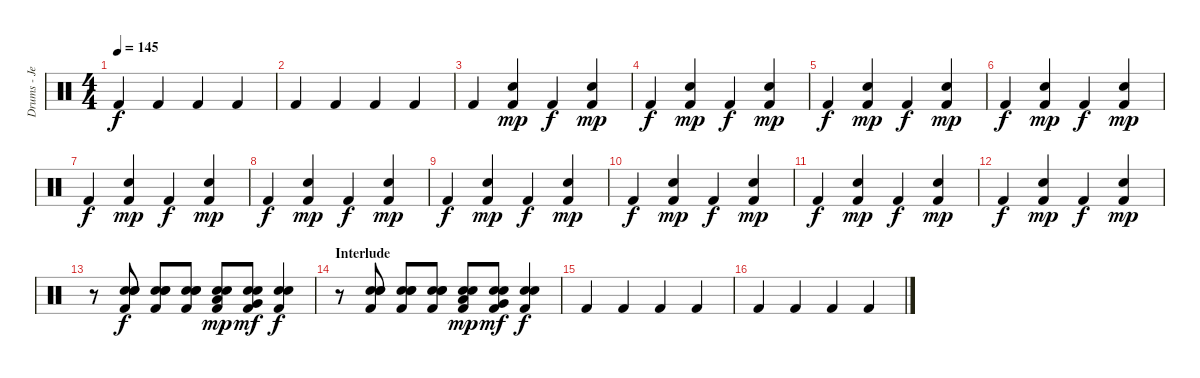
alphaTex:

\track ("Drums - Jeremiah Green" "Drums - Je") {instrument percussion}
\staff {score}
\articulation defaults
\ts (4 4)
\tempo 145
\clef neutral
\ks c "Kick (hit) 2".4{dy f} "Kick (hit) 2".4 "Kick (hit) 2".4 "Kick (hit) 2".4
|
"Kick (hit) 2".4 "Kick (hit) 2".4 "Kick (hit) 2".4 "Kick (hit) 2".4 |
"Kick (hit) 2".4 ("Snare (hit) 2" "Kick (hit) 2").4{dy mp} "Kick (hit) 2".4{dy f} ("Snare (hit) 2" "Kick (hit) 2").4{dy mp} |
"Kick (hit) 2".4{dy f} ("Snare (hit) 2" "Kick (hit) 2").4{dy mp} "Kick (hit) 2".4{dy f} ("Snare (hit) 2" "Kick (hit) 2").4{dy mp} |
"Kick (hit) 2".4{dy f} ("Snare (hit) 2" "Kick (hit) 2").4{dy mp} "Kick (hit) 2".4{dy f} ("Snare (hit) 2" "Kick (hit) 2").4{dy mp} |
"Kick (hit) 2".4{dy f} ("Snare (hit) 2" "Kick (hit) 2").4{dy mp} "Kick (hit) 2".4{dy f} ("Snare (hit) 2" "Kick (hit) 2").4{dy mp} |
"Kick (hit) 2".4{dy f} ("Snare (hit) 2" "Kick (hit) 2").4{dy mp} "Kick (hit) 2".4{dy f} ("Snare (hit) 2" "Kick (hit) 2").4{dy mp} |
"Kick (hit) 2".4{dy f} ("Snare (hit) 2" "Kick (hit) 2").4{dy mp} "Kick (hit) 2".4{dy f} ("Snare (hit) 2" "Kick (hit) 2").4{dy mp} |
"Kick (hit) 2".4{dy f} ("Snare (hit) 2" "Kick (hit) 2").4{dy mp} "Kick (hit) 2".4{dy f} ("Snare (hit) 2" "Kick (hit) 2").4{dy mp} |
"Kick (hit) 2".4{dy f} ("Snare (hit) 2" "Kick (hit) 2").4{dy mp} "Kick (hit) 2".4{dy f} ("Snare (hit) 2" "Kick (hit) 2").4{dy mp} |
"Kick (hit) 2".4{dy f} ("Snare (hit) 2" "Kick (hit) 2").4{dy mp} "Kick (hit) 2".4{dy f} ("Snare (hit) 2" "Kick (hit) 2").4{dy mp} |
"Kick (hit) 2".4{dy f} ("Snare (hit) 2" "Kick (hit) 2").4{dy mp} "Kick (hit) 2".4{dy f} ("Snare (hit) 2" "Kick (hit) 2").4{dy mp} |
r.8 ("Snare (hit) 2" "Electric Snare (hit)" "Electric Snare (hit)" "Kick (hit) 2").8{dy f} ("Snare (hit) 2" "Electric Snare (hit)" "Electric Snare (hit)" "Kick (hit) 2").8 ("Snare (hit) 2" "Electric Snare (hit)" "Electric Snare (hit)" "Kick (hit) 2").8 ("Snare (hit) 2" "Low Tom (hit)" "Electric Snare (hit)" "Kick (hit) 2").8{dy mp} ("Snare (hit) 2" "Very Low Tom (hit)" "Electric Snare (hit)" "Kick (hit) 2").8{dy mf} ("Snare (hit) 2" "Electric Snare (hit)" "Kick (hit) 2").4{dy f} |
\section ("" "Interlude")
r.8 ("Snare (hit) 2" "Electric Snare (hit)" "Electric Snare (hit)" "Kick (hit) 2").8 ("Snare (hit) 2" "Electric Snare (hit)" "Electric Snare (hit)" "Kick (hit) 2").8 ("Snare (hit) 2" "Electric Snare (hit)" "Electric Snare (hit)" "Kick (hit) 2").8 ("Snare (hit) 2" "Low Tom (hit)" "Electric Snare (hit)" "Kick (hit) 2").8{dy mp} ("Snare (hit) 2" "Very Low Tom (hit)" "Electric Snare (hit)" "Kick (hit) 2").8{dy mf} ("Snare (hit) 2" "Electric Snare (hit)" "Kick (hit) 2").4{dy f} |
"Kick (hit) 2".4 "Kick (hit) 2".4 "Kick (hit) 2".4 "Kick (hit) 2".4 |
"Kick (hit) 2".4 "Kick (hit) 2".4 "Kick (hit) 2".4 "Kick (hit) 2".4
